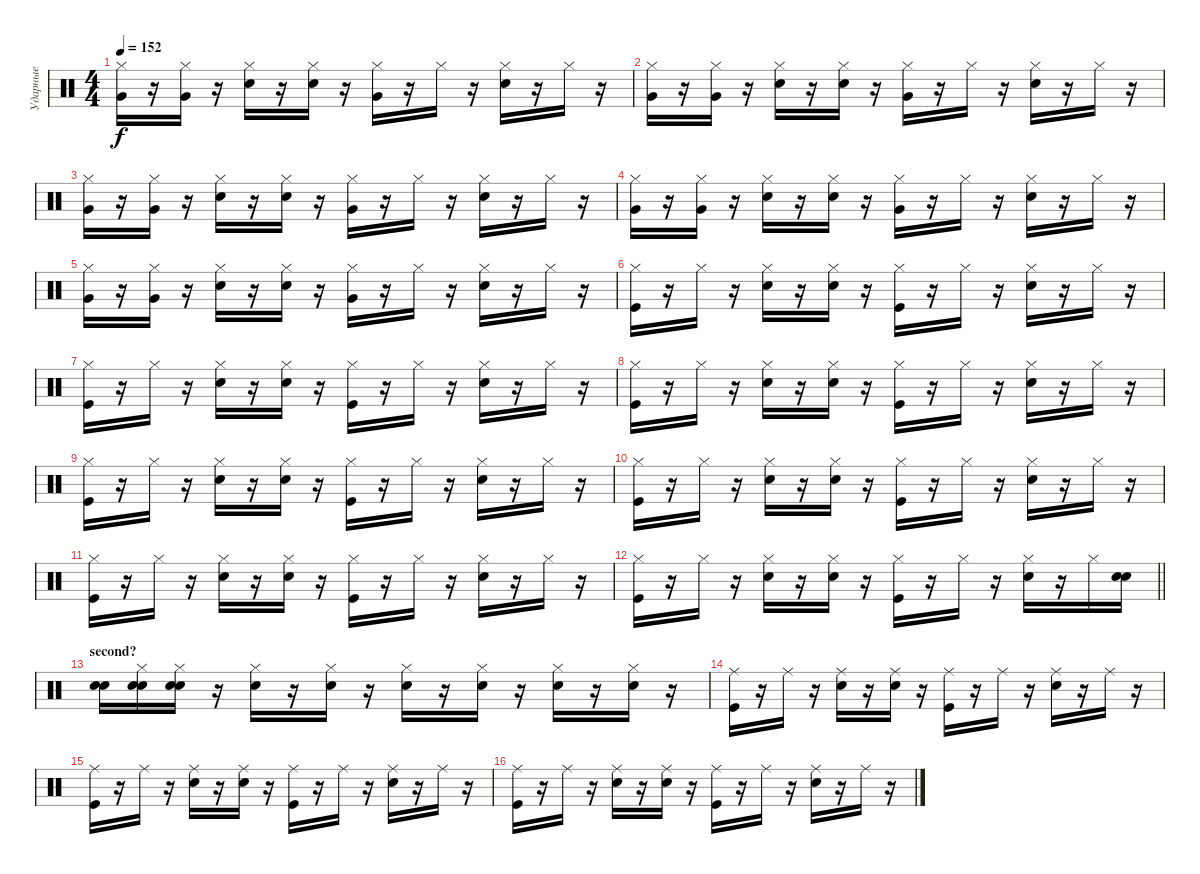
\track ("Ударные" "Ударные") {instrument percussion}
\staff {score}
\articulation defaults
\ts (4 4)
\tempo 152
\clef neutral
\ks c
("Very Low Tom (hit)" "Hi-Hat (closed)").16{dy f} r.16 ("Very Low Tom (hit)" "Hi-Hat (closed)").16 r.16 ("Electric Snare (hit)" "Hi-Hat (closed)").16 r.16 ("Electric Snare (hit)" "Hi-Hat (closed)").16 r.16 ("Hi-Hat (closed)" "Very Low Tom (hit)").16 r.16 "Hi-Hat (closed)".16 r.16 ("Electric Snare (hit)" "Hi-Hat (closed)").16 r.16 "Hi-Hat (closed)".16 r.16 |
("Hi-Hat (closed)" "Very Low Tom (hit)").16 r.16 ("Very Low Tom (hit)" "Hi-Hat (closed)").16 r.16 ("Electric Snare (hit)" "Hi-Hat (closed)").16 r.16 ("Electric Snare (hit)" "Hi-Hat (closed)").16 r.16 ("Very Low Tom (hit)" "Hi-Hat (closed)").16 r.16 "Hi-Hat (closed)".16 r.16 ("Electric Snare (hit)" "Hi-Hat (closed)").16 r.16 "Hi-Hat (closed)".16 r.16 |
("Hi-Hat (closed)" "Very Low Tom (hit)").16 r.16 ("Very Low Tom (hit)" "Hi-Hat (closed)").16 r.16 ("Electric Snare (hit)" "Hi-Hat (closed)").16 r.16 ("Electric Snare (hit)" "Hi-Hat (closed)").16 r.16 ("Very Low Tom (hit)" "Hi-Hat (closed)").16 r.16 "Hi-Hat (closed)".16 r.16 ("Electric Snare (hit)" "Hi-Hat (closed)").16 r.16 "Hi-Hat (closed)".16 r.16 |
("Hi-Hat (closed)" "Very Low Tom (hit)").16 r.16 ("Very Low Tom (hit)" "Hi-Hat (closed)").16 r.16 ("Electric Snare (hit)" "Hi-Hat (closed)").16 r.16 ("Hi-Hat (closed)" "Electric Snare (hit)").16 r.16 ("Very Low Tom (hit)" "Hi-Hat (closed)").16 r.16 "Hi-Hat (closed)".16 r.16 ("Electric Snare (hit)" "Hi-Hat (closed)").16 r.16 "Hi-Hat (closed)".16 r.16 |
("Very Low Tom (hit)" "Hi-Hat (closed)").16 r.16 ("Very Low Tom (hit)" "Hi-Hat (closed)").16 r.16 ("Electric Snare (hit)" "Hi-Hat (closed)").16 r.16 ("Electric Snare (hit)" "Hi-Hat (closed)").16 r.16 ("Very Low Tom (hit)" "Hi-Hat (closed)").16 r.16 "Hi-Hat (closed)".16 r.16 ("Hi-Hat (closed)" "Electric Snare (hit)").16 r.16 "Hi-Hat (closed)".16 r.16 |
("Kick (hit)" "Hi-Hat (closed)").16 r.16 "Hi-Hat (closed)".16 r.16 ("Electric Snare (hit)" "Hi-Hat (closed)").16 r.16 ("Electric Snare (hit)" "Hi-Hat (closed)").16 r.16 ("Kick (hit)" "Hi-Hat (closed)").16 r.16 "Hi-Hat (closed)".16 r.16 ("Electric Snare (hit)" "Hi-Hat (closed)").16 r.16 "Hi-Hat (closed)".16 r.16 |
("Kick (hit)" "Hi-Hat (closed)").16 r.16 "Hi-Hat (closed)".16 r.16 ("Electric Snare (hit)" "Hi-Hat (closed)").16 r.16 ("Electric Snare (hit)" "Hi-Hat (closed)").16 r.16 ("Kick (hit)" "Hi-Hat (closed)").16 r.16 "Hi-Hat (closed)".16 r.16 ("Electric Snare (hit)" "Hi-Hat (closed)").16 r.16 "Hi-Hat (closed)".16 r.16 |
("Kick (hit)" "Hi-Hat (closed)").16 r.16 "Hi-Hat (closed)".16 r.16 ("Electric Snare (hit)" "Hi-Hat (closed)").16 r.16 ("Electric Snare (hit)" "Hi-Hat (closed)").16 r.16 ("Hi-Hat (closed)" "Kick (hit)").16 r.16 "Hi-Hat (closed)".16 r.16 ("Electric Snare (hit)" "Hi-Hat (closed)").16 r.16 "Hi-Hat (closed)".16 r.16 |
("Kick (hit)" "Hi-Hat (closed)").16 r.16 "Hi-Hat (closed)".16 r.16 ("Electric Snare (hit)" "Hi-Hat (closed)").16 r.16 ("Electric Snare (hit)" "Hi-Hat (closed)").16 r.16 ("Kick (hit)" "Hi-Hat (closed)").16 r.16 "Hi-Hat (closed)".16 r.16 ("Electric Snare (hit)" "Hi-Hat (closed)").16 r.16 "Hi-Hat (closed)".16 r.16 |
("Kick (hit)" "Hi-Hat (closed)").16 r.16 "Hi-Hat (closed)".16 r.16 ("Electric Snare (hit)" "Hi-Hat (closed)").16 r.16 ("Electric Snare (hit)" "Hi-Hat (closed)").16 r.16 ("Kick (hit)" "Hi-Hat (closed)").16 r.16 "Hi-Hat (closed)".16 r.16 ("Electric Snare (hit)" "Hi-Hat (closed)").16 r.16 "Hi-Hat (closed)".16 r.16 |
("Kick (hit)" "Hi-Hat (closed)").16 r.16 "Hi-Hat (closed)".16 r.16 ("Hi-Hat (closed)" "Electric Snare (hit)").16 r.16 ("Electric Snare (hit)" "Hi-Hat (closed)").16 r.16 ("Kick (hit)" "Hi-Hat (closed)").16 r.16 "Hi-Hat (closed)".16 r.16 ("Electric Snare (hit)" "Hi-Hat (closed)").16 r.16 "Hi-Hat (closed)".16 r.16 |
\barLineRight lightlight
("Kick (hit)" "Hi-Hat (closed)").16 r.16 "Hi-Hat (closed)".16 r.16 ("Electric Snare (hit)" "Hi-Hat (closed)").16 r.16 ("Electric Snare (hit)" "Hi-Hat (closed)").16 r.16 ("Kick (hit)" "Hi-Hat (closed)").16 r.16 "Hi-Hat (closed)".16 r.16 ("Electric Snare (hit)" "Hi-Hat (closed)").16 r.16 "Hi-Hat (closed)".16 ("Snare (hit)" "Electric Snare (hit)").16 |
\section ("" "second?")
("Snare (hit)" "Electric Snare (hit)").16 ("Snare (hit)" "Electric Snare (hit)" "Hi-Hat (closed)").16 ("Snare (hit)" "Electric Snare (hit)" "Hi-Hat (closed)").16 r.16 ("Electric Snare (hit)" "Hi-Hat (closed)").16 r.16 ("Electric Snare (hit)" "Hi-Hat (closed)").16 r.16 ("Electric Snare (hit)" "Hi-Hat (closed)").16 r.16 ("Electric Snare (hit)" "Hi-Hat (closed)").16 r.16 ("Electric Snare (hit)" "Hi-Hat (closed)").16 r.16 ("Electric Snare (hit)" "Hi-Hat (closed)").16 r.16 |
("Ride (middle)" "Kick (hit)").16 r.16 "Ride (middle)".16 r.16 ("Electric Snare (hit)" "Ride (middle)").16 r.16 ("Electric Snare (hit)" "Ride (middle)").16 r.16 ("Kick (hit)" "Ride (middle)").16 r.16 "Ride (middle)".16 r.16 ("Electric Snare (hit)" "Ride (middle)").16 r.16 "Ride (middle)".16 r.16 |
("Kick (hit)" "Ride (middle)").16 r.16 "Ride (middle)".16 r.16 ("Electric Snare (hit)" "Ride (middle)").16 r.16 ("Ride (middle)" "Electric Snare (hit)").16 r.16 ("Kick (hit)" "Ride (middle)").16 r.16 "Ride (middle)".16 r.16 ("Electric Snare (hit)" "Ride (middle)").16 r.16 "Ride (middle)".16 r.16 |
("Kick (hit)" "Ride (middle)").16 r.16 "Ride (middle)".16 r.16 ("Electric Snare (hit)" "Ride (middle)").16 r.16 ("Electric Snare (hit)" "Ride (middle)").16 r.16 ("Kick (hit)" "Ride (middle)").16 r.16 "Ride (middle)".16 r.16 ("Ride (middle)" "Electric Snare (hit)").16 r.16 "Ride (middle)".16 r.16
